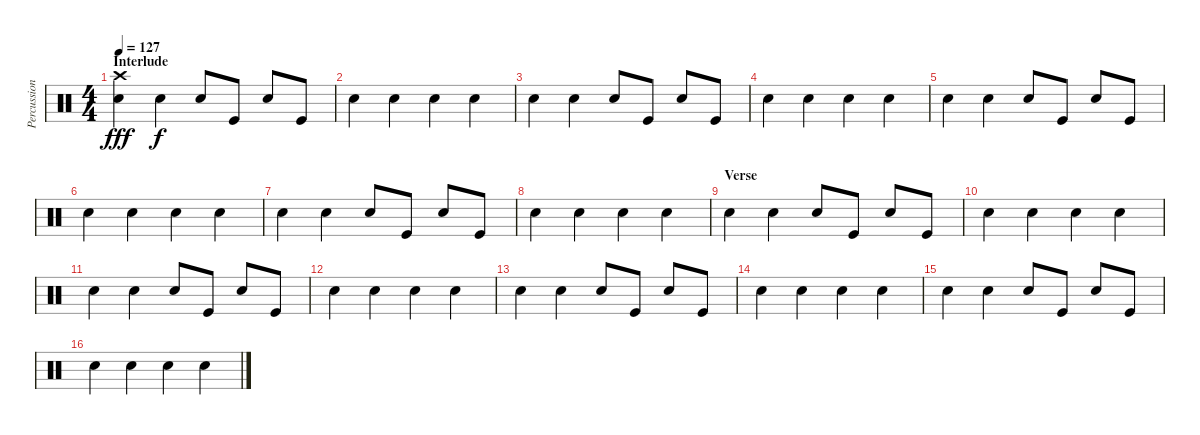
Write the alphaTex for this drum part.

\track ("Percussion" "Percussion") {instrument percussion}
\staff {score}
\articulation defaults
\ts (4 4)
\section ("" "Interlude")
\tempo 127
\clef neutral
\ks c
("Electric Snare (hit)" "Crash high (hit)").4{dy fff} "Electric Snare (hit)".4{dy f} "Electric Snare (hit)".8 "Kick (hit)".8 "Electric Snare (hit)".8 "Kick (hit)".8 |
"Electric Snare (hit)".4 "Electric Snare (hit)".4 "Electric Snare (hit)".4 "Electric Snare (hit)".4 |
"Electric Snare (hit)".4 "Electric Snare (hit)".4 "Electric Snare (hit)".8 "Kick (hit)".8 "Electric Snare (hit)".8 "Kick (hit)".8 |
"Electric Snare (hit)".4 "Electric Snare (hit)".4 "Electric Snare (hit)".4 "Electric Snare (hit)".4 |
"Electric Snare (hit)".4 "Electric Snare (hit)".4 "Electric Snare (hit)".8 "Kick (hit)".8 "Electric Snare (hit)".8 "Kick (hit)".8 |
"Electric Snare (hit)".4 "Electric Snare (hit)".4 "Electric Snare (hit)".4 "Electric Snare (hit)".4 |
"Electric Snare (hit)".4 "Electric Snare (hit)".4 "Electric Snare (hit)".8 "Kick (hit)".8 "Electric Snare (hit)".8 "Kick (hit)".8 |
"Electric Snare (hit)".4 "Electric Snare (hit)".4 "Electric Snare (hit)".4 "Electric Snare (hit)".4 |
\section ("" "Verse")
"Electric Snare (hit)".4 "Electric Snare (hit)".4 "Electric Snare (hit)".8 "Kick (hit)".8 "Electric Snare (hit)".8 "Kick (hit)".8 |
"Electric Snare (hit)".4 "Electric Snare (hit)".4 "Electric Snare (hit)".4 "Electric Snare (hit)".4 |
"Electric Snare (hit)".4 "Electric Snare (hit)".4 "Electric Snare (hit)".8 "Kick (hit)".8 "Electric Snare (hit)".8 "Kick (hit)".8 |
"Electric Snare (hit)".4 "Electric Snare (hit)".4 "Electric Snare (hit)".4 "Electric Snare (hit)".4 |
"Electric Snare (hit)".4 "Electric Snare (hit)".4 "Electric Snare (hit)".8 "Kick (hit)".8 "Electric Snare (hit)".8 "Kick (hit)".8 |
"Electric Snare (hit)".4 "Electric Snare (hit)".4 "Electric Snare (hit)".4 "Electric Snare (hit)".4 |
"Electric Snare (hit)".4 "Electric Snare (hit)".4 "Electric Snare (hit)".8 "Kick (hit)".8 "Electric Snare (hit)".8 "Kick (hit)".8 |
"Electric Snare (hit)".4 "Electric Snare (hit)".4 "Electric Snare (hit)".4 "Electric Snare (hit)".4
